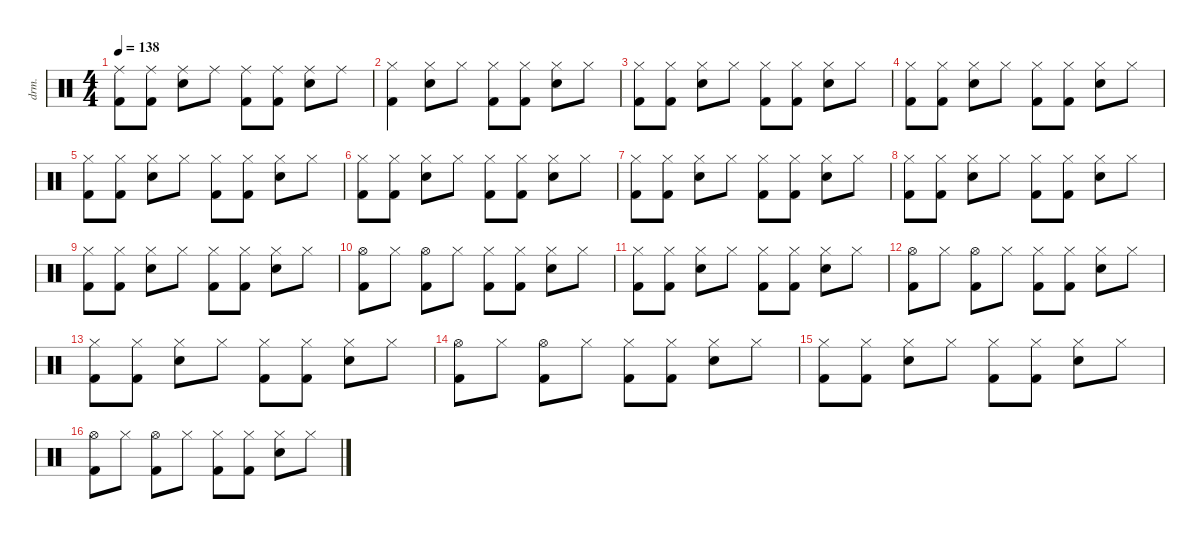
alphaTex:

\defaultSystemsLayout 4
\hideDynamics
\bracketExtendMode nobrackets
\otherSystemsTrackNameOrientation horizontal
\track ("Alex Van Halen " "drm.") {instrument percussion}
\staff {score}
\articulation defaults
\ts (4 4)
\tempo 138
\clef neutral
\ks c
("Kick (hit) 2" "Ride (middle)").8{dy ff beam Down} ("Kick (hit) 2" "Ride (middle)").8{dy f beam Down} ("Snare (hit) 2" "Ride (middle)").8{dy fff beam Down} "Ride (middle)".8{dy f beam Down} ("Kick (hit) 2" "Ride (middle)").8{dy ff beam Down} ("Kick (hit) 2" "Ride (middle)").8{dy f beam Down} ("Snare (hit) 2" "Ride (middle)").8{dy fff beam Down} "Ride (middle)".8{dy f beam Down} |
("Hi-Hat (closed)" "Kick (hit) 2").4{beam Down} ("Hi-Hat (closed)" "Snare (hit) 2").8{dy fff beam Down} "Hi-Hat (closed)".8{dy f beam Down} ("Hi-Hat (closed)" "Kick (hit) 2").8{beam Down} ("Hi-Hat (closed)" "Kick (hit) 2").8{beam Down} ("Hi-Hat (closed)" "Snare (hit) 2").8{dy fff beam Down} "Hi-Hat (closed)".8{dy f beam Down} |
("Hi-Hat (closed)" "Kick (hit) 2").8{beam Down} ("Hi-Hat (closed)" "Kick (hit) 2").8{beam Down} ("Hi-Hat (closed)" "Snare (hit) 2").8{dy fff beam Down} "Hi-Hat (closed)".8{dy f beam Down} ("Hi-Hat (closed)" "Kick (hit) 2").8{beam Down} ("Hi-Hat (closed)" "Kick (hit) 2").8{beam Down} ("Hi-Hat (closed)" "Snare (hit) 2").8{dy fff beam Down} "Hi-Hat (closed)".8{dy f beam Down} |
("Hi-Hat (closed)" "Kick (hit) 2").8{beam Down} ("Hi-Hat (closed)" "Kick (hit) 2").8{beam Down} ("Hi-Hat (closed)" "Snare (hit) 2").8{dy fff beam Down} "Hi-Hat (closed)".8{dy f beam Down} ("Hi-Hat (closed)" "Kick (hit) 2").8{beam Down} ("Hi-Hat (closed)" "Kick (hit) 2").8{beam Down} ("Hi-Hat (closed)" "Snare (hit) 2").8{dy fff beam Down} "Hi-Hat (closed)".8{dy f beam Down} |
("Hi-Hat (closed)" "Kick (hit) 2").8{beam Down} ("Hi-Hat (closed)" "Kick (hit) 2").8{beam Down} ("Hi-Hat (closed)" "Snare (hit) 2").8{dy fff beam Down} "Hi-Hat (closed)".8{dy f beam Down} ("Hi-Hat (closed)" "Kick (hit) 2").8{beam Down} ("Hi-Hat (closed)" "Kick (hit) 2").8{beam Down} ("Hi-Hat (closed)" "Snare (hit) 2").8{dy fff beam Down} "Hi-Hat (closed)".8{dy f beam Down} |
("Hi-Hat (closed)" "Kick (hit) 2").8{beam Down} ("Hi-Hat (closed)" "Kick (hit) 2").8{beam Down} ("Hi-Hat (closed)" "Snare (hit) 2").8{dy fff beam Down} "Hi-Hat (closed)".8{dy f beam Down} ("Hi-Hat (closed)" "Kick (hit) 2").8{beam Down} ("Hi-Hat (closed)" "Kick (hit) 2").8{beam Down} ("Hi-Hat (closed)" "Snare (hit) 2").8{dy fff beam Down} "Hi-Hat (closed)".8{dy f beam Down} |
("Hi-Hat (closed)" "Kick (hit) 2").8{beam Down} ("Hi-Hat (closed)" "Kick (hit) 2").8{beam Down} ("Hi-Hat (closed)" "Snare (hit) 2").8{dy fff beam Down} "Hi-Hat (closed)".8{dy f beam Down} ("Hi-Hat (closed)" "Kick (hit) 2").8{beam Down} ("Hi-Hat (closed)" "Kick (hit) 2").8{beam Down} ("Hi-Hat (closed)" "Snare (hit) 2").8{dy fff beam Down} "Hi-Hat (closed)".8{dy f beam Down} |
("Hi-Hat (closed)" "Kick (hit) 2").8{beam Down} ("Hi-Hat (closed)" "Kick (hit) 2").8{beam Down} ("Hi-Hat (closed)" "Snare (hit) 2").8{dy fff beam Down} "Hi-Hat (closed)".8{dy f beam Down} ("Hi-Hat (closed)" "Kick (hit) 2").8{beam Down} ("Hi-Hat (closed)" "Kick (hit) 2").8{beam Down} ("Hi-Hat (closed)" "Snare (hit) 2").8{dy fff beam Down} "Hi-Hat (closed)".8{dy f beam Down} |
("Hi-Hat (closed)" "Kick (hit) 2").8{beam Down} ("Hi-Hat (closed)" "Kick (hit) 2").8{beam Down} ("Hi-Hat (closed)" "Snare (hit) 2").8{dy fff beam Down} "Hi-Hat (closed)".8{dy f beam Down} ("Hi-Hat (closed)" "Kick (hit) 2").8{beam Down} ("Hi-Hat (closed)" "Kick (hit) 2").8{beam Down} ("Hi-Hat (closed)" "Snare (hit) 2").8{dy fff beam Down} "Hi-Hat (closed)".8{dy f beam Down} |
("Kick (hit) 2" "Hi-Hat (open)").8{dy ff beam Down} "Hi-Hat (closed)".8{dy f beam Down} ("Kick (hit) 2" "Hi-Hat (open)").8{dy ff beam Down} "Hi-Hat (closed)".8{dy f beam Down} ("Kick (hit) 2" "Hi-Hat (closed)").8{dy ff beam Down} ("Kick (hit) 2" "Hi-Hat (closed)").8{dy f beam Down} ("Snare (hit) 2" "Hi-Hat (closed)").8{dy fff beam Down} "Hi-Hat (closed)".8{dy f beam Down} |
("Kick (hit) 2" "Hi-Hat (closed)").8{dy ff beam Down} ("Kick (hit) 2" "Hi-Hat (closed)").8{dy f beam Down} ("Snare (hit) 2" "Hi-Hat (closed)").8{dy fff beam Down} "Hi-Hat (closed)".8{dy f beam Down} ("Kick (hit) 2" "Hi-Hat (closed)").8{dy ff beam Down} ("Kick (hit) 2" "Hi-Hat (closed)").8{dy f beam Down} ("Snare (hit) 2" "Hi-Hat (closed)").8{dy fff beam Down} "Hi-Hat (closed)".8{dy f beam Down} |
("Kick (hit) 2" "Hi-Hat (open)").8{dy ff beam Down} "Hi-Hat (closed)".8{dy f beam Down} ("Kick (hit) 2" "Hi-Hat (open)").8{dy ff beam Down} "Hi-Hat (closed)".8{dy f beam Down} ("Kick (hit) 2" "Hi-Hat (closed)").8{dy ff beam Down} ("Kick (hit) 2" "Hi-Hat (closed)").8{dy f beam Down} ("Snare (hit) 2" "Hi-Hat (closed)").8{dy fff beam Down} "Hi-Hat (closed)".8{dy f beam Down} |
("Kick (hit) 2" "Hi-Hat (closed)").8{dy ff beam Down} ("Kick (hit) 2" "Hi-Hat (closed)").8{dy f beam Down} ("Snare (hit) 2" "Hi-Hat (closed)").8{dy fff beam Down} "Hi-Hat (closed)".8{dy f beam Down} ("Kick (hit) 2" "Hi-Hat (closed)").8{dy ff beam Down} ("Kick (hit) 2" "Hi-Hat (closed)").8{dy f beam Down} ("Snare (hit) 2" "Hi-Hat (closed)").8{dy fff beam Down} "Hi-Hat (closed)".8{dy f beam Down} |
("Kick (hit) 2" "Hi-Hat (open)").8{dy ff beam Down} "Hi-Hat (closed)".8{dy f beam Down} ("Kick (hit) 2" "Hi-Hat (open)").8{dy ff beam Down} "Hi-Hat (closed)".8{dy f beam Down} ("Kick (hit) 2" "Hi-Hat (closed)").8{dy ff beam Down} ("Kick (hit) 2" "Hi-Hat (closed)").8{dy f beam Down} ("Snare (hit) 2" "Hi-Hat (closed)").8{dy fff beam Down} "Hi-Hat (closed)".8{dy f beam Down} |
("Kick (hit) 2" "Hi-Hat (closed)").8{dy ff beam Down} ("Kick (hit) 2" "Hi-Hat (closed)").8{dy f beam Down} ("Snare (hit) 2" "Hi-Hat (closed)").8{dy fff beam Down} "Hi-Hat (closed)".8{dy f beam Down} ("Kick (hit) 2" "Hi-Hat (closed)").8{dy ff beam Down} ("Kick (hit) 2" "Hi-Hat (closed)").8{dy f beam Down} ("Snare (hit) 2" "Hi-Hat (closed)").8{dy fff beam Down} "Hi-Hat (closed)".8{dy f beam Down} |
("Kick (hit) 2" "Hi-Hat (open)").8{dy ff beam Down} "Hi-Hat (closed)".8{dy f beam Down} ("Kick (hit) 2" "Hi-Hat (open)").8{dy ff beam Down} "Hi-Hat (closed)".8{dy f beam Down} ("Kick (hit) 2" "Hi-Hat (closed)").8{dy ff beam Down} ("Kick (hit) 2" "Hi-Hat (closed)").8{dy f beam Down} ("Snare (hit) 2" "Hi-Hat (closed)").8{dy fff beam Down} "Hi-Hat (closed)".8{dy f beam Down}
